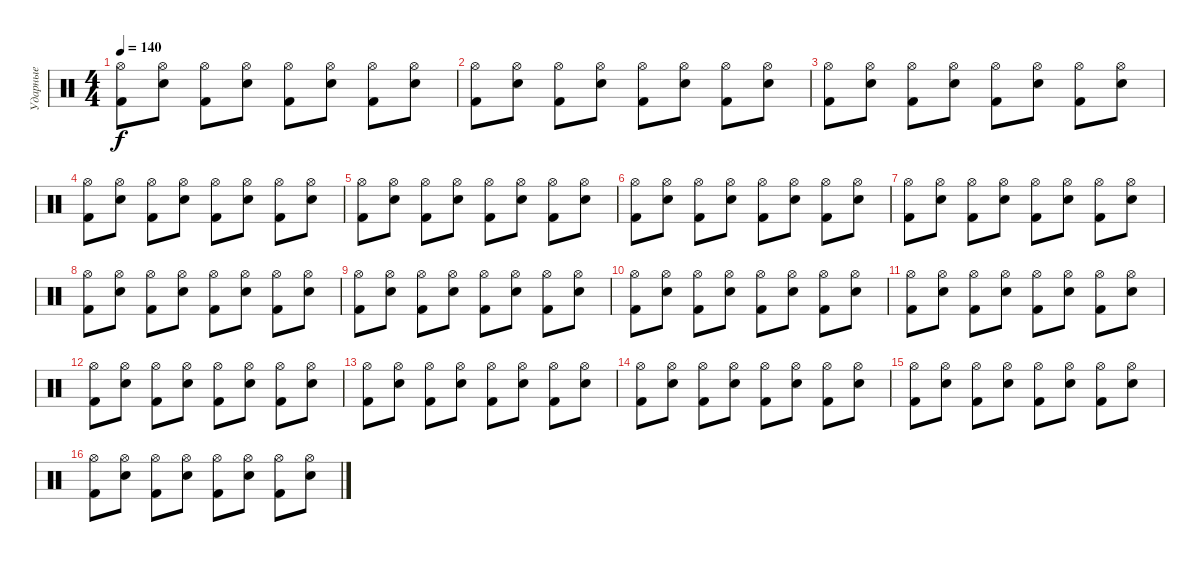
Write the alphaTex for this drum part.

\track ("Ударные" "Ударные") {instrument percussion}
\staff {score}
\articulation defaults
\ts (4 4)
\tempo 140
\clef neutral
\ks c
("Hi-Hat (open)" "Kick (hit) 2").8{dy f} ("Hi-Hat (open)" "Electric Snare (hit)").8 ("Hi-Hat (open)" "Kick (hit) 2").8 ("Hi-Hat (open)" "Electric Snare (hit)").8 ("Hi-Hat (open)" "Kick (hit) 2").8 ("Hi-Hat (open)" "Electric Snare (hit)").8 ("Hi-Hat (open)" "Kick (hit) 2").8 ("Hi-Hat (open)" "Electric Snare (hit)").8 |
("Hi-Hat (open)" "Kick (hit) 2").8 ("Hi-Hat (open)" "Electric Snare (hit)").8 ("Hi-Hat (open)" "Kick (hit) 2").8 ("Hi-Hat (open)" "Electric Snare (hit)").8 ("Hi-Hat (open)" "Kick (hit) 2").8 ("Hi-Hat (open)" "Electric Snare (hit)").8 ("Hi-Hat (open)" "Kick (hit) 2").8 ("Hi-Hat (open)" "Electric Snare (hit)").8 |
("Hi-Hat (open)" "Kick (hit) 2").8 ("Hi-Hat (open)" "Electric Snare (hit)").8 ("Hi-Hat (open)" "Kick (hit) 2").8 ("Hi-Hat (open)" "Electric Snare (hit)").8 ("Hi-Hat (open)" "Kick (hit) 2").8 ("Hi-Hat (open)" "Electric Snare (hit)").8 ("Hi-Hat (open)" "Kick (hit) 2").8 ("Hi-Hat (open)" "Electric Snare (hit)").8 |
("Hi-Hat (open)" "Kick (hit) 2").8 ("Hi-Hat (open)" "Electric Snare (hit)").8 ("Hi-Hat (open)" "Kick (hit) 2").8 ("Hi-Hat (open)" "Electric Snare (hit)").8 ("Hi-Hat (open)" "Kick (hit) 2").8 ("Hi-Hat (open)" "Electric Snare (hit)").8 ("Hi-Hat (open)" "Kick (hit) 2").8 ("Hi-Hat (open)" "Electric Snare (hit)").8 |
("Hi-Hat (open)" "Kick (hit) 2").8 ("Hi-Hat (open)" "Electric Snare (hit)").8 ("Hi-Hat (open)" "Kick (hit) 2").8 ("Hi-Hat (open)" "Electric Snare (hit)").8 ("Hi-Hat (open)" "Kick (hit) 2").8 ("Hi-Hat (open)" "Electric Snare (hit)").8 ("Hi-Hat (open)" "Kick (hit) 2").8 ("Hi-Hat (open)" "Electric Snare (hit)").8 |
("Hi-Hat (open)" "Kick (hit) 2").8 ("Hi-Hat (open)" "Electric Snare (hit)").8 ("Hi-Hat (open)" "Kick (hit) 2").8 ("Hi-Hat (open)" "Electric Snare (hit)").8 ("Hi-Hat (open)" "Kick (hit) 2").8 ("Hi-Hat (open)" "Electric Snare (hit)").8 ("Hi-Hat (open)" "Kick (hit) 2").8 ("Hi-Hat (open)" "Electric Snare (hit)").8 |
("Hi-Hat (open)" "Kick (hit) 2").8 ("Hi-Hat (open)" "Electric Snare (hit)").8 ("Hi-Hat (open)" "Kick (hit) 2").8 ("Hi-Hat (open)" "Electric Snare (hit)").8 ("Hi-Hat (open)" "Kick (hit) 2").8 ("Hi-Hat (open)" "Electric Snare (hit)").8 ("Hi-Hat (open)" "Kick (hit) 2").8 ("Hi-Hat (open)" "Electric Snare (hit)").8 |
("Hi-Hat (open)" "Kick (hit) 2").8 ("Hi-Hat (open)" "Electric Snare (hit)").8 ("Hi-Hat (open)" "Kick (hit) 2").8 ("Hi-Hat (open)" "Electric Snare (hit)").8 ("Hi-Hat (open)" "Kick (hit) 2").8 ("Hi-Hat (open)" "Electric Snare (hit)").8 ("Hi-Hat (open)" "Kick (hit) 2").8 ("Hi-Hat (open)" "Electric Snare (hit)").8 |
("Hi-Hat (open)" "Kick (hit) 2").8 ("Hi-Hat (open)" "Electric Snare (hit)").8 ("Hi-Hat (open)" "Kick (hit) 2").8 ("Hi-Hat (open)" "Electric Snare (hit)").8 ("Hi-Hat (open)" "Kick (hit) 2").8 ("Hi-Hat (open)" "Electric Snare (hit)").8 ("Hi-Hat (open)" "Kick (hit) 2").8 ("Hi-Hat (open)" "Electric Snare (hit)").8 |
("Hi-Hat (open)" "Kick (hit) 2").8 ("Hi-Hat (open)" "Electric Snare (hit)").8 ("Hi-Hat (open)" "Kick (hit) 2").8 ("Hi-Hat (open)" "Electric Snare (hit)").8 ("Hi-Hat (open)" "Kick (hit) 2").8 ("Hi-Hat (open)" "Electric Snare (hit)").8 ("Hi-Hat (open)" "Kick (hit) 2").8 ("Hi-Hat (open)" "Electric Snare (hit)").8 |
("Hi-Hat (open)" "Kick (hit) 2").8 ("Hi-Hat (open)" "Electric Snare (hit)").8 ("Hi-Hat (open)" "Kick (hit) 2").8 ("Hi-Hat (open)" "Electric Snare (hit)").8 ("Hi-Hat (open)" "Kick (hit) 2").8 ("Hi-Hat (open)" "Electric Snare (hit)").8 ("Hi-Hat (open)" "Kick (hit) 2").8 ("Hi-Hat (open)" "Electric Snare (hit)").8 |
("Hi-Hat (open)" "Kick (hit) 2").8 ("Hi-Hat (open)" "Electric Snare (hit)").8 ("Hi-Hat (open)" "Kick (hit) 2").8 ("Hi-Hat (open)" "Electric Snare (hit)").8 ("Hi-Hat (open)" "Kick (hit) 2").8 ("Hi-Hat (open)" "Electric Snare (hit)").8 ("Hi-Hat (open)" "Kick (hit) 2").8 ("Hi-Hat (open)" "Electric Snare (hit)").8 |
("Hi-Hat (open)" "Kick (hit) 2").8 ("Hi-Hat (open)" "Electric Snare (hit)").8 ("Hi-Hat (open)" "Kick (hit) 2").8 ("Hi-Hat (open)" "Electric Snare (hit)").8 ("Hi-Hat (open)" "Kick (hit) 2").8 ("Hi-Hat (open)" "Electric Snare (hit)").8 ("Hi-Hat (open)" "Kick (hit) 2").8 ("Hi-Hat (open)" "Electric Snare (hit)").8 |
("Hi-Hat (open)" "Kick (hit) 2").8 ("Hi-Hat (open)" "Electric Snare (hit)").8 ("Hi-Hat (open)" "Kick (hit) 2").8 ("Hi-Hat (open)" "Electric Snare (hit)").8 ("Hi-Hat (open)" "Kick (hit) 2").8 ("Hi-Hat (open)" "Electric Snare (hit)").8 ("Hi-Hat (open)" "Kick (hit) 2").8 ("Hi-Hat (open)" "Electric Snare (hit)").8 |
("Hi-Hat (open)" "Kick (hit) 2").8 ("Hi-Hat (open)" "Electric Snare (hit)").8 ("Hi-Hat (open)" "Kick (hit) 2").8 ("Hi-Hat (open)" "Electric Snare (hit)").8 ("Hi-Hat (open)" "Kick (hit) 2").8 ("Hi-Hat (open)" "Electric Snare (hit)").8 ("Hi-Hat (open)" "Kick (hit) 2").8 ("Hi-Hat (open)" "Electric Snare (hit)").8 |
("Hi-Hat (open)" "Kick (hit) 2").8 ("Hi-Hat (open)" "Electric Snare (hit)").8 ("Hi-Hat (open)" "Kick (hit) 2").8 ("Hi-Hat (open)" "Electric Snare (hit)").8 ("Hi-Hat (open)" "Kick (hit) 2").8 ("Hi-Hat (open)" "Electric Snare (hit)").8 ("Hi-Hat (open)" "Kick (hit) 2").8 ("Hi-Hat (open)" "Electric Snare (hit)").8
